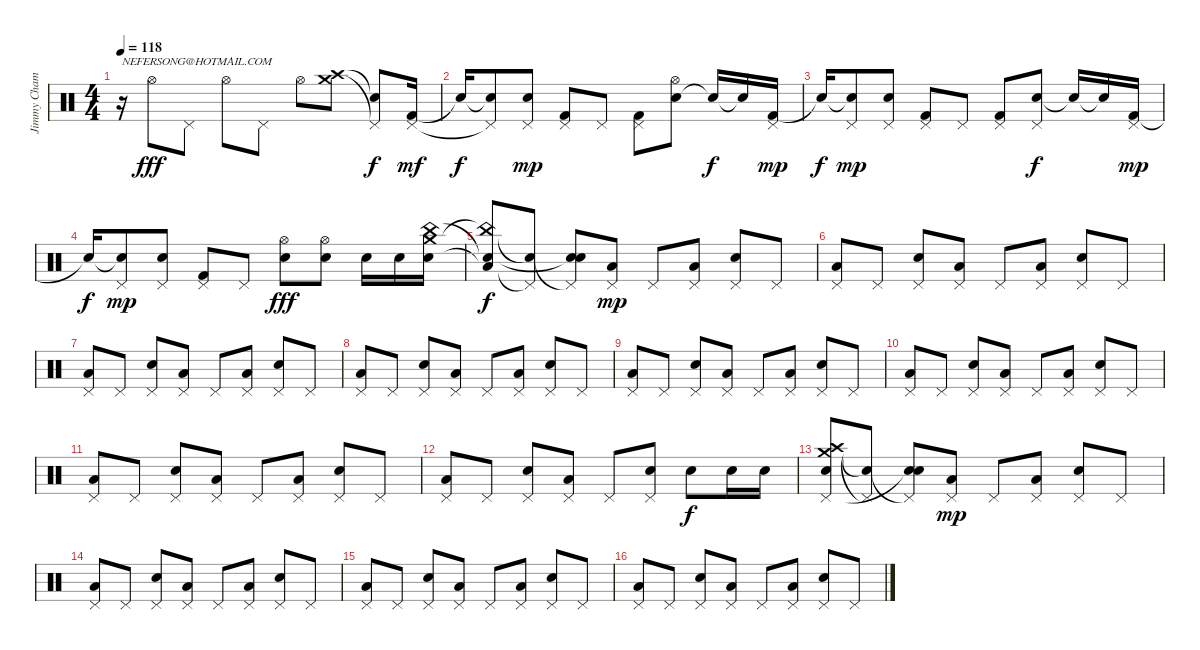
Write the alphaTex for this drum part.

\track ("Jimmy Chamberlin" "Jimmy Cham") {instrument percussion}
\staff {score}
\articulation defaults
\ts (4 4)
\tempo 118
\clef neutral
\ks c
r.16{txt "NEFERSONG@HOTMAIL.COM" dy fff} "Hi-Hat (open)".8 "Pedal Hi-Hat (hit)".8 "Hi-Hat (open)".8 "Pedal Hi-Hat (hit)".8 "Hi-Hat (open)".8 ("Crash high (hit)" "Crash medium (hit)").8 ("Snare (hit)"{t} "Pedal Hi-Hat (hit)"{t}).8{dy f} ("Kick (hit) 2" "Pedal Hi-Hat (hit)").16{dy mf} |
"Snare (hit)"{t}.16{dy f} ("Snare (hit) 2"{t} "Pedal Hi-Hat (hit)"{t}).8 ("Snare (hit) 2" "Pedal Hi-Hat (hit)").8{dy mp} ("Kick (hit) 2" "Pedal Hi-Hat (hit)").8 "Pedal Hi-Hat (hit)".8 ("Kick (hit) 2" "Pedal Hi-Hat (hit)").8 ("Snare (hit) 2" "Hi-Hat (open)").8 "Snare (hit)"{t}.16{dy f} "Snare (hit)"{t}.16 ("Kick (hit) 2" "Pedal Hi-Hat (hit)").16{dy mp} |
"Snare (hit)"{t}.16{dy f} ("Snare (hit) 2"{t} "Pedal Hi-Hat (hit)").8{dy mp} ("Snare (hit) 2" "Pedal Hi-Hat (hit)").8 ("Kick (hit) 2" "Pedal Hi-Hat (hit)").8 "Pedal Hi-Hat (hit)".8 ("Kick (hit) 2" "Pedal Hi-Hat (hit)").8 ("Snare (hit) 2" "Pedal Hi-Hat (hit)").8{dy f} "Snare (hit)"{t}.16 "Snare (hit)"{t}.16 ("Kick (hit) 2" "Pedal Hi-Hat (hit)").16{dy mp} |
"Snare (hit)"{t}.16{dy f} ("Snare (hit) 2"{t} "Pedal Hi-Hat (hit)").8{dy mp} ("Snare (hit) 2" "Pedal Hi-Hat (hit)").8 ("Kick (hit) 2" "Pedal Hi-Hat (hit)").8 "Pedal Hi-Hat (hit)".8 ("Snare (hit) 2" "Hi-Hat (open)").8{dy fff} ("Snare (hit) 2" "Hi-Hat (open)").8 "Snare (hit) 2".16 "Snare (hit) 2".16 ("Snare (hit) 2" "Crash medium (hit)" "China (hit)").16 |
("Low Floor Tom (hit)"{t} "China (hit)"{t} "Snare (hit)"{t}).8{dy f} ("Pedal Hi-Hat (hit)"{t} "Snare (hit)"{t}).8 ("Snare (hit) 2" "Pedal Hi-Hat (hit)"{t} "Snare (hit)"{t}).8 ("Low Floor Tom (hit)" "Pedal Hi-Hat (hit)").8{dy mp} "Pedal Hi-Hat (hit)".8 ("Low Floor Tom (hit)" "Pedal Hi-Hat (hit)").8 ("Snare (hit) 2" "Pedal Hi-Hat (hit)").8 "Pedal Hi-Hat (hit)".8 |
("Low Floor Tom (hit)" "Pedal Hi-Hat (hit)").8 "Pedal Hi-Hat (hit)".8 ("Snare (hit) 2" "Pedal Hi-Hat (hit)").8 ("Low Floor Tom (hit)" "Pedal Hi-Hat (hit)").8 "Pedal Hi-Hat (hit)".8 ("Low Floor Tom (hit)" "Pedal Hi-Hat (hit)").8 ("Snare (hit) 2" "Pedal Hi-Hat (hit)").8 "Pedal Hi-Hat (hit)".8 |
("Low Floor Tom (hit)" "Pedal Hi-Hat (hit)").8 "Pedal Hi-Hat (hit)".8 ("Snare (hit) 2" "Pedal Hi-Hat (hit)").8 ("Low Floor Tom (hit)" "Pedal Hi-Hat (hit)").8 "Pedal Hi-Hat (hit)".8 ("Low Floor Tom (hit)" "Pedal Hi-Hat (hit)").8 ("Snare (hit) 2" "Pedal Hi-Hat (hit)").8 "Pedal Hi-Hat (hit)".8 |
("Low Floor Tom (hit)" "Pedal Hi-Hat (hit)").8 "Pedal Hi-Hat (hit)".8 ("Snare (hit) 2" "Pedal Hi-Hat (hit)").8 ("Low Floor Tom (hit)" "Pedal Hi-Hat (hit)").8 "Pedal Hi-Hat (hit)".8 ("Low Floor Tom (hit)" "Pedal Hi-Hat (hit)").8 ("Snare (hit) 2" "Pedal Hi-Hat (hit)").8 "Pedal Hi-Hat (hit)".8 |
("Low Floor Tom (hit)" "Pedal Hi-Hat (hit)").8 "Pedal Hi-Hat (hit)".8 ("Snare (hit) 2" "Pedal Hi-Hat (hit)").8 ("Low Floor Tom (hit)" "Pedal Hi-Hat (hit)").8 "Pedal Hi-Hat (hit)".8 ("Low Floor Tom (hit)" "Pedal Hi-Hat (hit)").8 ("Snare (hit) 2" "Pedal Hi-Hat (hit)").8 "Pedal Hi-Hat (hit)".8 |
("Low Floor Tom (hit)" "Pedal Hi-Hat (hit)").8 "Pedal Hi-Hat (hit)".8 ("Snare (hit) 2" "Pedal Hi-Hat (hit)").8 ("Low Floor Tom (hit)" "Pedal Hi-Hat (hit)").8 "Pedal Hi-Hat (hit)".8 ("Low Floor Tom (hit)" "Pedal Hi-Hat (hit)").8 ("Snare (hit) 2" "Pedal Hi-Hat (hit)").8 "Pedal Hi-Hat (hit)".8 |
("Low Floor Tom (hit)" "Pedal Hi-Hat (hit)").8 "Pedal Hi-Hat (hit)".8 ("Snare (hit) 2" "Pedal Hi-Hat (hit)").8 ("Low Floor Tom (hit)" "Pedal Hi-Hat (hit)").8 "Pedal Hi-Hat (hit)".8 ("Low Floor Tom (hit)" "Pedal Hi-Hat (hit)").8 ("Snare (hit) 2" "Pedal Hi-Hat (hit)").8 "Pedal Hi-Hat (hit)".8 |
("Low Floor Tom (hit)" "Pedal Hi-Hat (hit)").8 "Pedal Hi-Hat (hit)".8 ("Snare (hit) 2" "Pedal Hi-Hat (hit)").8 ("Low Floor Tom (hit)" "Pedal Hi-Hat (hit)").8 "Pedal Hi-Hat (hit)".8 ("Snare (hit) 2" "Pedal Hi-Hat (hit)").8 "Snare (hit) 2".8{dy f} "Snare (hit) 2".16 "Snare (hit) 2".16 |
("Crash high (hit)" "Crash medium (hit)" "Pedal Hi-Hat (hit)" "Snare (hit)").8 ("Pedal Hi-Hat (hit)"{t} "Snare (hit)"{t}).8 ("Snare (hit) 2" "Pedal Hi-Hat (hit)"{t} "Snare (hit)"{t}).8 ("Low Floor Tom (hit)" "Pedal Hi-Hat (hit)").8{dy mp} "Pedal Hi-Hat (hit)".8 ("Low Floor Tom (hit)" "Pedal Hi-Hat (hit)").8 ("Snare (hit) 2" "Pedal Hi-Hat (hit)").8 "Pedal Hi-Hat (hit)".8 |
("Low Floor Tom (hit)" "Pedal Hi-Hat (hit)").8 "Pedal Hi-Hat (hit)".8 ("Snare (hit) 2" "Pedal Hi-Hat (hit)").8 ("Low Floor Tom (hit)" "Pedal Hi-Hat (hit)").8 "Pedal Hi-Hat (hit)".8 ("Low Floor Tom (hit)" "Pedal Hi-Hat (hit)").8 ("Snare (hit) 2" "Pedal Hi-Hat (hit)").8 "Pedal Hi-Hat (hit)".8 |
("Low Floor Tom (hit)" "Pedal Hi-Hat (hit)").8 "Pedal Hi-Hat (hit)".8 ("Snare (hit) 2" "Pedal Hi-Hat (hit)").8 ("Low Floor Tom (hit)" "Pedal Hi-Hat (hit)").8 "Pedal Hi-Hat (hit)".8 ("Low Floor Tom (hit)" "Pedal Hi-Hat (hit)").8 ("Snare (hit) 2" "Pedal Hi-Hat (hit)").8 "Pedal Hi-Hat (hit)".8 |
("Low Floor Tom (hit)" "Pedal Hi-Hat (hit)").8 "Pedal Hi-Hat (hit)".8 ("Snare (hit) 2" "Pedal Hi-Hat (hit)").8 ("Low Floor Tom (hit)" "Pedal Hi-Hat (hit)").8 "Pedal Hi-Hat (hit)".8 ("Low Floor Tom (hit)" "Pedal Hi-Hat (hit)").8 ("Snare (hit) 2" "Pedal Hi-Hat (hit)").8 "Pedal Hi-Hat (hit)".8
